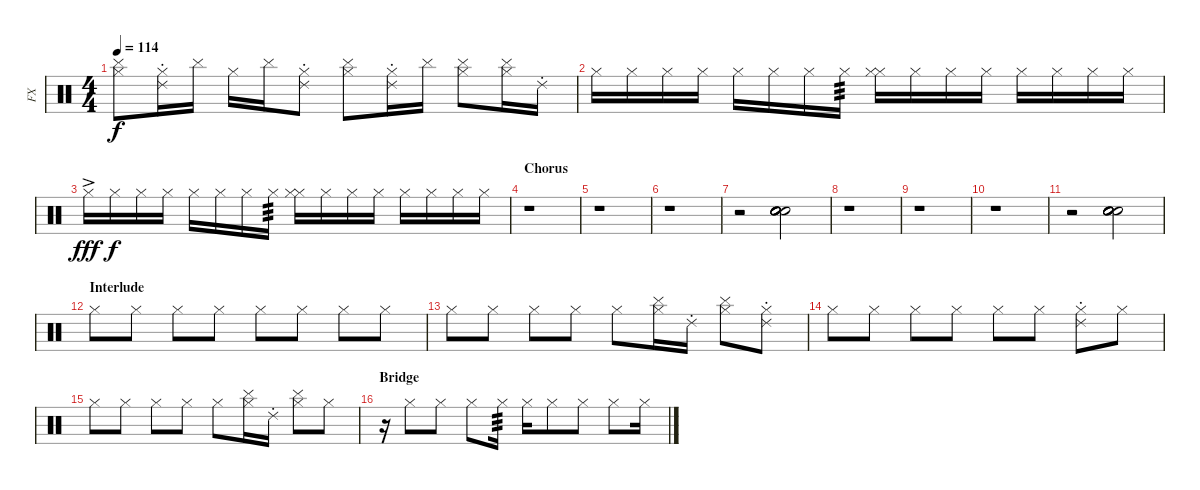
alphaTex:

\track ("FX" "FX") {instrument percussion}
\staff {score}
\articulation defaults
\ts (4 4)
\tempo 114
\clef neutral
\ks c
("Hi-Hat (closed)" "Cymbal (hit)").8{dy f} ("Hi-Hat (closed)" "Ride (choke) 2").16 "Cymbal (hit)".16 "Hi-Hat (closed)".16 "Cymbal (hit)".16 ("Hi-Hat (closed)" "Ride (choke) 2").8 ("Hi-Hat (closed)" "Cymbal (hit)").8 ("Hi-Hat (closed)" "Ride (choke) 2").16 "Cymbal (hit)".16 ("Hi-Hat (closed)" "Cymbal (hit)").8 ("Hi-Hat (closed)" "Cymbal (hit)").16 "Ride (choke) 2".16 |
"Hi-Hat (closed)".16 "Hi-Hat (closed)".16 "Hi-Hat (closed)".16 "Hi-Hat (closed)".16 "Hi-Hat (closed)".16 "Hi-Hat (closed)".16 "Hi-Hat (closed)".16 "Hi-Hat (closed)".16{tp 3} ("Hi-Hat (closed)" "Hi-Hat (closed)").16 "Hi-Hat (closed)".16 "Hi-Hat (closed)".16 "Hi-Hat (closed)".16 "Hi-Hat (closed)".16 "Hi-Hat (closed)".16 "Hi-Hat (closed)".16 "Hi-Hat (closed)".16 |
"Hi-Hat (closed)"{ac}.16{dy fff} "Hi-Hat (closed)".16{dy f} "Hi-Hat (closed)".16 "Hi-Hat (closed)".16 "Hi-Hat (closed)".16 "Hi-Hat (closed)".16 "Hi-Hat (closed)".16 "Hi-Hat (closed)".16{tp 3} ("Hi-Hat (closed)" "Hi-Hat (closed)").16 "Hi-Hat (closed)".16 "Hi-Hat (closed)".16 "Hi-Hat (closed)".16 "Hi-Hat (closed)".16 "Hi-Hat (closed)".16 "Hi-Hat (closed)".16 "Hi-Hat (closed)".16 |
\section ("" "Chorus")
r.1 |
r.1 |
r.1 |
r.2 ("Electric Snare (hit)" "Electric Snare (hit)" "Electric Snare (hit)" "Electric Snare (hit)" "Electric Snare (hit)" "Electric Snare (hit)").2 |
r.1 |
r.1 |
r.1 |
r.2 ("Electric Snare (hit)" "Electric Snare (hit)" "Electric Snare (hit)" "Electric Snare (hit)" "Electric Snare (hit)" "Electric Snare (hit)").2 |
\section ("" "Interlude")
"Hi-Hat (closed)".8 "Hi-Hat (closed)".8 "Hi-Hat (closed)".8 "Hi-Hat (closed)".8 "Hi-Hat (closed)".8 "Hi-Hat (closed)".8 "Hi-Hat (closed)".8 "Hi-Hat (closed)".8 |
"Hi-Hat (closed)".8 "Hi-Hat (closed)".8 "Hi-Hat (closed)".8 "Hi-Hat (closed)".8 "Hi-Hat (closed)".8 ("Hi-Hat (closed)" "Cymbal (hit)").16 "Ride (choke) 2".16 ("Hi-Hat (closed)" "Cymbal (hit)").8 ("Hi-Hat (closed)" "Ride (choke) 2").8 |
"Hi-Hat (closed)".8 "Hi-Hat (closed)".8 "Hi-Hat (closed)".8 "Hi-Hat (closed)".8 "Hi-Hat (closed)".8 "Hi-Hat (closed)".8 ("Hi-Hat (closed)" "Ride (choke) 2").8 "Hi-Hat (closed)".8 |
"Hi-Hat (closed)".8 "Hi-Hat (closed)".8 "Hi-Hat (closed)".8 "Hi-Hat (closed)".8 "Hi-Hat (closed)".8 ("Hi-Hat (closed)" "Cymbal (hit)").16 "Ride (choke) 2".16 ("Hi-Hat (closed)" "Cymbal (hit)").8 "Hi-Hat (closed)".8 |
\section ("" "Bridge")
r.16 "Hi-Hat (closed)".8 "Hi-Hat (closed)".8 "Hi-Hat (closed)".8 "Hi-Hat (closed)".16{tp 3} "Hi-Hat (closed)".16 "Hi-Hat (closed)".8 "Hi-Hat (closed)".8 "Hi-Hat (closed)".8 "Hi-Hat (closed)".16
